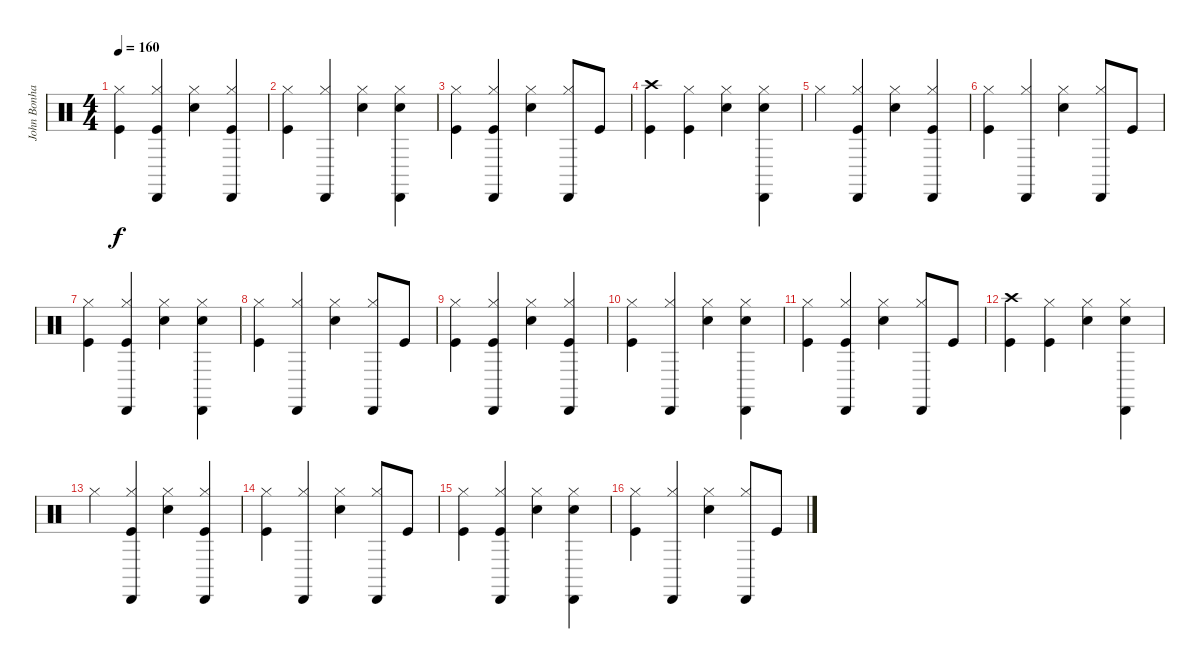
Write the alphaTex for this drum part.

\track ("John Bonham - Drums" "John Bonha") {instrument percussion}
\staff {score}
\articulation defaults
\ts (4 4)
\tempo 160
\clef neutral
\ks c
("Hi-Hat (closed)" "Kick (hit)").4{dy f} ("Hi-Hat (closed)" "Kick (hit)" "Cabasa (hit)").4 ("Hi-Hat (closed)" "Snare (hit) 2").4 ("Hi-Hat (closed)" "Kick (hit)" "Cabasa (hit)").4 |
("Hi-Hat (closed)" "Kick (hit)").4 ("Hi-Hat (closed)" "Cabasa (hit)").4 ("Snare (hit) 2" "Hi-Hat (closed)").4 ("Snare (hit) 2" "Hi-Hat (closed)" "Cabasa (hit)").4 |
("Hi-Hat (closed)" "Kick (hit)").4 ("Hi-Hat (closed)" "Kick (hit)" "Cabasa (hit)").4 ("Hi-Hat (closed)" "Snare (hit) 2").4 ("Hi-Hat (closed)" "Cabasa (hit)").8 "Kick (hit)".8 |
("Kick (hit)" "Crash high (hit)").4 ("Hi-Hat (closed)" "Kick (hit)").4 ("Hi-Hat (closed)" "Snare (hit) 2").4 ("Snare (hit) 2" "Hi-Hat (closed)" "Cabasa (hit)").4 |
"Hi-Hat (closed)".4 ("Kick (hit)" "Cabasa (hit)" "Hi-Hat (closed)").4 ("Snare (hit) 2" "Hi-Hat (closed)").4 ("Kick (hit)" "Cabasa (hit)" "Hi-Hat (closed)").4 |
("Kick (hit)" "Hi-Hat (closed)").4 ("Hi-Hat (closed)" "Cabasa (hit)").4 ("Snare (hit) 2" "Hi-Hat (closed)").4 ("Hi-Hat (closed)" "Cabasa (hit)").8 "Kick (hit)".8 |
("Hi-Hat (closed)" "Kick (hit)").4 ("Hi-Hat (closed)" "Kick (hit)" "Cabasa (hit)").4 ("Hi-Hat (closed)" "Snare (hit) 2").4 ("Hi-Hat (closed)" "Snare (hit) 2" "Cabasa (hit)").4 |
("Hi-Hat (closed)" "Kick (hit)").4 ("Hi-Hat (closed)" "Cabasa (hit)").4 ("Snare (hit) 2" "Hi-Hat (closed)").4 ("Hi-Hat (closed)" "Cabasa (hit)").8 "Kick (hit)".8 |
("Hi-Hat (closed)" "Kick (hit)").4 ("Hi-Hat (closed)" "Kick (hit)" "Cabasa (hit)").4 ("Hi-Hat (closed)" "Snare (hit) 2").4 ("Hi-Hat (closed)" "Kick (hit)" "Cabasa (hit)").4 |
("Hi-Hat (closed)" "Kick (hit)").4 ("Hi-Hat (closed)" "Cabasa (hit)").4 ("Snare (hit) 2" "Hi-Hat (closed)").4 ("Snare (hit) 2" "Hi-Hat (closed)" "Cabasa (hit)").4 |
("Hi-Hat (closed)" "Kick (hit)").4 ("Hi-Hat (closed)" "Kick (hit)" "Cabasa (hit)").4 ("Hi-Hat (closed)" "Snare (hit) 2").4 ("Hi-Hat (closed)" "Cabasa (hit)").8 "Kick (hit)".8 |
("Kick (hit)" "Crash high (hit)").4 ("Hi-Hat (closed)" "Kick (hit)").4 ("Hi-Hat (closed)" "Snare (hit) 2").4 ("Snare (hit) 2" "Hi-Hat (closed)" "Cabasa (hit)").4 |
"Hi-Hat (closed)".4 ("Kick (hit)" "Cabasa (hit)" "Hi-Hat (closed)").4 ("Snare (hit) 2" "Hi-Hat (closed)").4 ("Kick (hit)" "Cabasa (hit)" "Hi-Hat (closed)").4 |
("Kick (hit)" "Hi-Hat (closed)").4 ("Hi-Hat (closed)" "Cabasa (hit)").4 ("Snare (hit) 2" "Hi-Hat (closed)").4 ("Hi-Hat (closed)" "Cabasa (hit)").8 "Kick (hit)".8 |
("Hi-Hat (closed)" "Kick (hit)").4 ("Hi-Hat (closed)" "Kick (hit)" "Cabasa (hit)").4 ("Hi-Hat (closed)" "Snare (hit) 2").4 ("Hi-Hat (closed)" "Snare (hit) 2" "Cabasa (hit)").4 |
("Hi-Hat (closed)" "Kick (hit)").4 ("Hi-Hat (closed)" "Cabasa (hit)").4 ("Snare (hit) 2" "Hi-Hat (closed)").4 ("Hi-Hat (closed)" "Cabasa (hit)").8 "Kick (hit)".8
